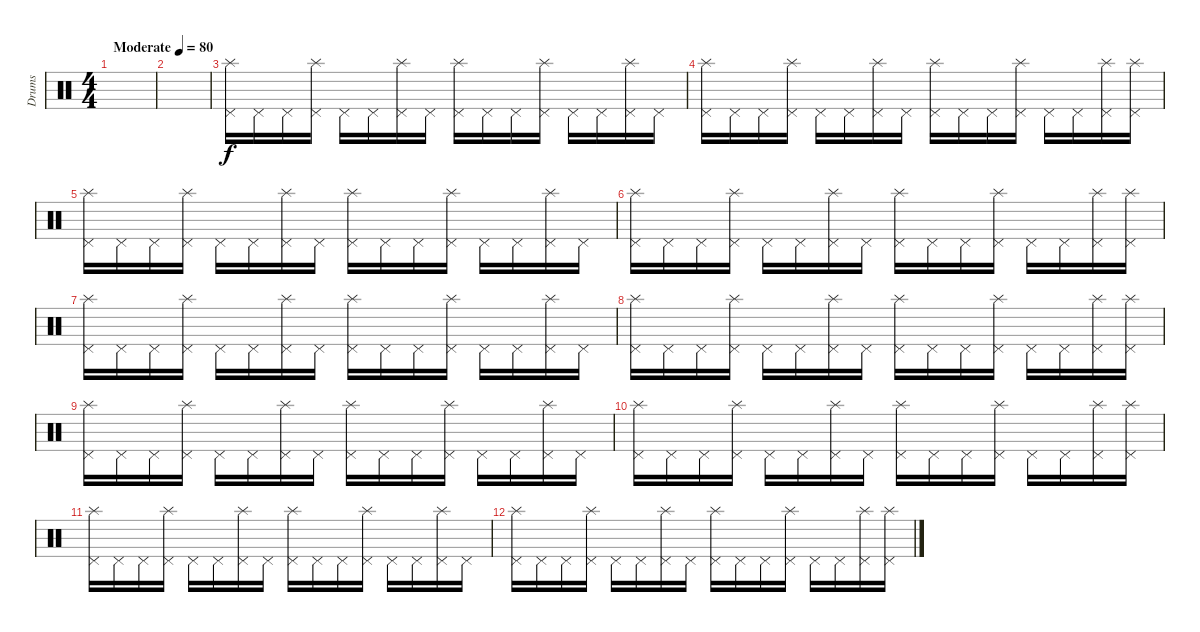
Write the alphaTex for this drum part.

\track ("Drums" "Drums") {instrument percussion}
\staff {score}
\articulation defaults
\ts (4 4)
\tempo (80 "Moderate")
\clef neutral
\ks c
|
|
("Splash (hit)" "Pedal Hi-Hat (hit)").16 "Pedal Hi-Hat (hit)".16 "Pedal Hi-Hat (hit)".16 ("Splash (hit)" "Pedal Hi-Hat (hit)").16 "Pedal Hi-Hat (hit)".16 "Pedal Hi-Hat (hit)".16 ("Splash (hit)" "Pedal Hi-Hat (hit)").16 "Pedal Hi-Hat (hit)".16 ("Splash (hit)" "Pedal Hi-Hat (hit)").16 "Pedal Hi-Hat (hit)".16 "Pedal Hi-Hat (hit)".16 ("Splash (hit)" "Pedal Hi-Hat (hit)").16 "Pedal Hi-Hat (hit)".16 "Pedal Hi-Hat (hit)".16 ("Splash (hit)" "Pedal Hi-Hat (hit)").16 "Pedal Hi-Hat (hit)".16 |
("Splash (hit)" "Pedal Hi-Hat (hit)").16 "Pedal Hi-Hat (hit)".16 "Pedal Hi-Hat (hit)".16 ("Splash (hit)" "Pedal Hi-Hat (hit)").16 "Pedal Hi-Hat (hit)".16 "Pedal Hi-Hat (hit)".16 ("Splash (hit)" "Pedal Hi-Hat (hit)").16 "Pedal Hi-Hat (hit)".16 ("Splash (hit)" "Pedal Hi-Hat (hit)").16 "Pedal Hi-Hat (hit)".16 "Pedal Hi-Hat (hit)".16 ("Splash (hit)" "Pedal Hi-Hat (hit)").16 "Pedal Hi-Hat (hit)".16 "Pedal Hi-Hat (hit)".16 ("Splash (hit)" "Pedal Hi-Hat (hit)").16 ("Splash (hit)" "Pedal Hi-Hat (hit)").16 |
("Splash (hit)" "Pedal Hi-Hat (hit)").16 "Pedal Hi-Hat (hit)".16 "Pedal Hi-Hat (hit)".16 ("Splash (hit)" "Pedal Hi-Hat (hit)").16 "Pedal Hi-Hat (hit)".16 "Pedal Hi-Hat (hit)".16 ("Splash (hit)" "Pedal Hi-Hat (hit)").16 "Pedal Hi-Hat (hit)".16 ("Splash (hit)" "Pedal Hi-Hat (hit)").16 "Pedal Hi-Hat (hit)".16 "Pedal Hi-Hat (hit)".16 ("Splash (hit)" "Pedal Hi-Hat (hit)").16 "Pedal Hi-Hat (hit)".16 "Pedal Hi-Hat (hit)".16 ("Splash (hit)" "Pedal Hi-Hat (hit)").16 "Pedal Hi-Hat (hit)".16 |
("Splash (hit)" "Pedal Hi-Hat (hit)").16 "Pedal Hi-Hat (hit)".16 "Pedal Hi-Hat (hit)".16 ("Splash (hit)" "Pedal Hi-Hat (hit)").16 "Pedal Hi-Hat (hit)".16 "Pedal Hi-Hat (hit)".16 ("Splash (hit)" "Pedal Hi-Hat (hit)").16 "Pedal Hi-Hat (hit)".16 ("Splash (hit)" "Pedal Hi-Hat (hit)").16 "Pedal Hi-Hat (hit)".16 "Pedal Hi-Hat (hit)".16 ("Splash (hit)" "Pedal Hi-Hat (hit)").16 "Pedal Hi-Hat (hit)".16 "Pedal Hi-Hat (hit)".16 ("Splash (hit)" "Pedal Hi-Hat (hit)").16 ("Splash (hit)" "Pedal Hi-Hat (hit)").16 |
("Splash (hit)" "Pedal Hi-Hat (hit)").16 "Pedal Hi-Hat (hit)".16 "Pedal Hi-Hat (hit)".16 ("Splash (hit)" "Pedal Hi-Hat (hit)").16 "Pedal Hi-Hat (hit)".16 "Pedal Hi-Hat (hit)".16 ("Splash (hit)" "Pedal Hi-Hat (hit)").16 "Pedal Hi-Hat (hit)".16 ("Splash (hit)" "Pedal Hi-Hat (hit)").16 "Pedal Hi-Hat (hit)".16 "Pedal Hi-Hat (hit)".16 ("Splash (hit)" "Pedal Hi-Hat (hit)").16 "Pedal Hi-Hat (hit)".16 "Pedal Hi-Hat (hit)".16 ("Splash (hit)" "Pedal Hi-Hat (hit)").16 "Pedal Hi-Hat (hit)".16 |
("Splash (hit)" "Pedal Hi-Hat (hit)").16 "Pedal Hi-Hat (hit)".16 "Pedal Hi-Hat (hit)".16 ("Splash (hit)" "Pedal Hi-Hat (hit)").16 "Pedal Hi-Hat (hit)".16 "Pedal Hi-Hat (hit)".16 ("Splash (hit)" "Pedal Hi-Hat (hit)").16 "Pedal Hi-Hat (hit)".16 ("Splash (hit)" "Pedal Hi-Hat (hit)").16 "Pedal Hi-Hat (hit)".16 "Pedal Hi-Hat (hit)".16 ("Splash (hit)" "Pedal Hi-Hat (hit)").16 "Pedal Hi-Hat (hit)".16 "Pedal Hi-Hat (hit)".16 ("Splash (hit)" "Pedal Hi-Hat (hit)").16 ("Splash (hit)" "Pedal Hi-Hat (hit)").16 |
("Splash (hit)" "Pedal Hi-Hat (hit)").16 "Pedal Hi-Hat (hit)".16 "Pedal Hi-Hat (hit)".16 ("Splash (hit)" "Pedal Hi-Hat (hit)").16 "Pedal Hi-Hat (hit)".16 "Pedal Hi-Hat (hit)".16 ("Splash (hit)" "Pedal Hi-Hat (hit)").16 "Pedal Hi-Hat (hit)".16 ("Splash (hit)" "Pedal Hi-Hat (hit)").16 "Pedal Hi-Hat (hit)".16 "Pedal Hi-Hat (hit)".16 ("Splash (hit)" "Pedal Hi-Hat (hit)").16 "Pedal Hi-Hat (hit)".16 "Pedal Hi-Hat (hit)".16 ("Splash (hit)" "Pedal Hi-Hat (hit)").16 "Pedal Hi-Hat (hit)".16 |
("Splash (hit)" "Pedal Hi-Hat (hit)").16 "Pedal Hi-Hat (hit)".16 "Pedal Hi-Hat (hit)".16 ("Splash (hit)" "Pedal Hi-Hat (hit)").16 "Pedal Hi-Hat (hit)".16 "Pedal Hi-Hat (hit)".16 ("Splash (hit)" "Pedal Hi-Hat (hit)").16 "Pedal Hi-Hat (hit)".16 ("Splash (hit)" "Pedal Hi-Hat (hit)").16 "Pedal Hi-Hat (hit)".16 "Pedal Hi-Hat (hit)".16 ("Splash (hit)" "Pedal Hi-Hat (hit)").16 "Pedal Hi-Hat (hit)".16 "Pedal Hi-Hat (hit)".16 ("Splash (hit)" "Pedal Hi-Hat (hit)").16 ("Splash (hit)" "Pedal Hi-Hat (hit)").16 |
("Splash (hit)" "Pedal Hi-Hat (hit)").16 "Pedal Hi-Hat (hit)".16 "Pedal Hi-Hat (hit)".16 ("Splash (hit)" "Pedal Hi-Hat (hit)").16 "Pedal Hi-Hat (hit)".16 "Pedal Hi-Hat (hit)".16 ("Splash (hit)" "Pedal Hi-Hat (hit)").16 "Pedal Hi-Hat (hit)".16 ("Splash (hit)" "Pedal Hi-Hat (hit)").16 "Pedal Hi-Hat (hit)".16 "Pedal Hi-Hat (hit)".16 ("Splash (hit)" "Pedal Hi-Hat (hit)").16 "Pedal Hi-Hat (hit)".16 "Pedal Hi-Hat (hit)".16 ("Splash (hit)" "Pedal Hi-Hat (hit)").16 "Pedal Hi-Hat (hit)".16 |
("Splash (hit)" "Pedal Hi-Hat (hit)").16 "Pedal Hi-Hat (hit)".16 "Pedal Hi-Hat (hit)".16 ("Splash (hit)" "Pedal Hi-Hat (hit)").16 "Pedal Hi-Hat (hit)".16 "Pedal Hi-Hat (hit)".16 ("Splash (hit)" "Pedal Hi-Hat (hit)").16 "Pedal Hi-Hat (hit)".16 ("Splash (hit)" "Pedal Hi-Hat (hit)").16 "Pedal Hi-Hat (hit)".16 "Pedal Hi-Hat (hit)".16 ("Splash (hit)" "Pedal Hi-Hat (hit)").16 "Pedal Hi-Hat (hit)".16 "Pedal Hi-Hat (hit)".16 ("Splash (hit)" "Pedal Hi-Hat (hit)").16 ("Splash (hit)" "Pedal Hi-Hat (hit)").16
